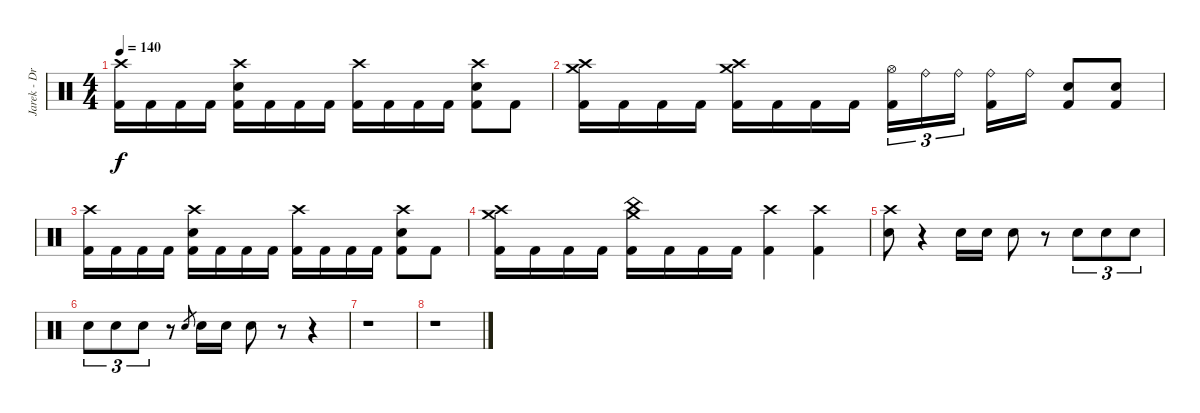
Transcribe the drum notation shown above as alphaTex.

\track ("Jarek - Drums" "Jarek - Dr") {instrument percussion}
\staff {score}
\articulation defaults
\ts (4 4)
\tempo 140
\clef neutral
\ks c
("Crash high (hit)" "Kick (hit) 2").16{dy f} "Kick (hit) 2".16 "Kick (hit) 2".16 "Kick (hit) 2".16 ("Crash high (hit)" "Snare (hit) 2" "Kick (hit) 2").16 "Kick (hit) 2".16 "Kick (hit) 2".16 "Kick (hit) 2".16 ("Crash high (hit)" "Kick (hit) 2").16 "Kick (hit) 2".16 "Kick (hit) 2".16 "Kick (hit) 2".16 ("Crash high (hit)" "Snare (hit) 2" "Kick (hit) 2").8 "Kick (hit) 2".8 |
("Crash high (hit)" "Crash medium (hit)" "Kick (hit) 2").16 "Kick (hit) 2".16 "Kick (hit) 2".16 "Kick (hit) 2".16 ("Crash high (hit)" "Crash medium (hit)" "Kick (hit) 2").16 "Kick (hit) 2".16 "Kick (hit) 2".16 "Kick (hit) 2".16 ("Hi-Hat (open)" "Kick (hit) 2").16{tu (3 2)} "Ride (bell)".16{tu (3 2)} "Ride (bell)".16{tu (3 2)} ("Ride (bell)" "Kick (hit) 2").16 "Ride (bell)".16 ("Snare (hit) 2" "Kick (hit) 2").8 ("Snare (hit) 2" "Kick (hit) 2").8 |
("Crash high (hit)" "Kick (hit) 2").16 "Kick (hit) 2".16 "Kick (hit) 2".16 "Kick (hit) 2".16 ("Crash high (hit)" "Snare (hit) 2" "Kick (hit) 2").16 "Kick (hit) 2".16 "Kick (hit) 2".16 "Kick (hit) 2".16 ("Crash high (hit)" "Kick (hit) 2").16 "Kick (hit) 2".16 "Kick (hit) 2".16 "Kick (hit) 2".16 ("Crash high (hit)" "Snare (hit) 2" "Kick (hit) 2").8 "Kick (hit) 2".8 |
("Crash high (hit)" "Crash medium (hit)" "Kick (hit) 2").16 "Kick (hit) 2".16 "Kick (hit) 2".16 "Kick (hit) 2".16 ("China (hit)" "Crash medium (hit)" "Kick (hit) 2").16 "Kick (hit) 2".16 "Kick (hit) 2".16 "Kick (hit) 2".16 ("Crash high (hit)" "Kick (hit) 2").4 ("Crash high (hit)" "Kick (hit) 2").4 |
("Crash high (hit)" "Snare (hit) 2").8 r.4 "Snare (hit) 2".16 "Snare (hit) 2".16 "Snare (hit) 2".8 r.8 "Snare (hit) 2".8{tu (3 2)} "Snare (hit) 2".8{tu (3 2)} "Snare (hit) 2".8{tu (3 2)} |
"Snare (hit) 2".8{tu (3 2)} "Snare (hit) 2".8{tu (3 2)} "Snare (hit) 2".8{tu (3 2)} r.8 "Snare (hit) 2".8{gr} "Snare (hit) 2".16 "Snare (hit) 2".16 "Snare (hit) 2".8 r.8 r.4 |
r.1 |
r.1
